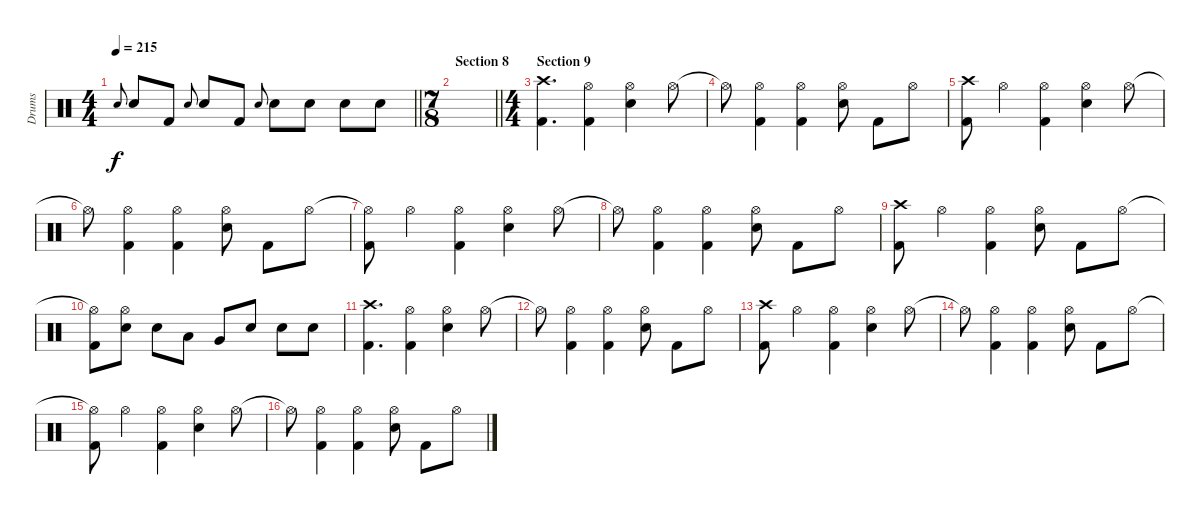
\track ("Drums" "Drums") {instrument percussion}
\staff {score}
\articulation defaults
\ts (4 4)
\tempo 215
\clef neutral
\barLineRight lightlight
\ks c "Snare (hit) 2"{h}.8{gr onbeat dy f} "Snare (hit) 2".8 "Kick (hit) 2".8 "Snare (hit) 2"{h}.8{gr onbeat} "Snare (hit) 2".8 "Kick (hit) 2".8 "Snare (hit) 2"{h}.8{gr onbeat} "Snare (hit) 2".8 "Snare (hit) 2".8 "Snare (hit) 2".8 "Snare (hit) 2".8
|
\ts (7 8)
\section ("" "Section 8")
\barLineRight lightlight
|
\ts (4 4)
\section ("" "Section 9")
("Crash high (hit)" "Kick (hit) 2").4{d} ("Hi-Hat (open)" "Kick (hit) 2").4 ("Hi-Hat (open)" "Snare (hit) 2").4 "Hi-Hat (open)".8 |
"Hi-Hat (open)"{t}.8 ("Hi-Hat (open)" "Kick (hit) 2").4 ("Hi-Hat (open)" "Kick (hit) 2").4 ("Hi-Hat (open)" "Snare (hit) 2").8 "Kick (hit) 2".8 "Hi-Hat (open)".8 |
("Crash high (hit)" "Kick (hit) 2").8 "Hi-Hat (open)".4 ("Hi-Hat (open)" "Kick (hit) 2").4 ("Hi-Hat (open)" "Snare (hit) 2").4 "Hi-Hat (open)".8 |
"Hi-Hat (open)"{t}.8 ("Hi-Hat (open)" "Kick (hit) 2").4 ("Hi-Hat (open)" "Kick (hit) 2").4 ("Hi-Hat (open)" "Snare (hit) 2").8 "Kick (hit) 2".8 "Hi-Hat (open)".8 |
("Hi-Hat (open)"{t} "Kick (hit) 2").8 "Hi-Hat (open)".4 ("Hi-Hat (open)" "Kick (hit) 2").4 ("Hi-Hat (open)" "Snare (hit) 2").4 "Hi-Hat (open)".8 |
"Hi-Hat (open)"{t}.8 ("Hi-Hat (open)" "Kick (hit) 2").4 ("Hi-Hat (open)" "Kick (hit) 2").4 ("Hi-Hat (open)" "Snare (hit) 2").8 "Kick (hit) 2".8 "Hi-Hat (open)".8 |
("Crash high (hit)" "Kick (hit) 2").8 "Hi-Hat (open)".4 ("Hi-Hat (open)" "Kick (hit) 2").4 ("Hi-Hat (open)" "Snare (hit) 2").8 "Kick (hit) 2".8 "Hi-Hat (open)".8 |
("Hi-Hat (open)"{t} "Kick (hit) 2").8 ("Hi-Hat (open)" "Snare (hit) 2").8 "Snare (hit) 2".8 "Low Tom (hit)".8 "Very Low Tom (hit)".8 "Snare (hit) 2".8 "Snare (hit) 2".8 "Snare (hit) 2".8 |
("Crash high (hit)" "Kick (hit) 2").4{d} ("Hi-Hat (open)" "Kick (hit) 2").4 ("Hi-Hat (open)" "Snare (hit) 2").4 "Hi-Hat (open)".8 |
"Hi-Hat (open)"{t}.8 ("Hi-Hat (open)" "Kick (hit) 2").4 ("Hi-Hat (open)" "Kick (hit) 2").4 ("Hi-Hat (open)" "Snare (hit) 2").8 "Kick (hit) 2".8 "Hi-Hat (open)".8 |
("Crash high (hit)" "Kick (hit) 2").8 "Hi-Hat (open)".4 ("Hi-Hat (open)" "Kick (hit) 2").4 ("Hi-Hat (open)" "Snare (hit) 2").4 "Hi-Hat (open)".8 |
"Hi-Hat (open)"{t}.8 ("Hi-Hat (open)" "Kick (hit) 2").4 ("Hi-Hat (open)" "Kick (hit) 2").4 ("Hi-Hat (open)" "Snare (hit) 2").8 "Kick (hit) 2".8 "Hi-Hat (open)".8 |
("Hi-Hat (open)"{t} "Kick (hit) 2").8 "Hi-Hat (open)".4 ("Hi-Hat (open)" "Kick (hit) 2").4 ("Hi-Hat (open)" "Snare (hit) 2").4 "Hi-Hat (open)".8 |
"Hi-Hat (open)"{t}.8 ("Hi-Hat (open)" "Kick (hit) 2").4 ("Hi-Hat (open)" "Kick (hit) 2").4 ("Hi-Hat (open)" "Snare (hit) 2").8 "Kick (hit) 2".8 "Hi-Hat (open)".8
